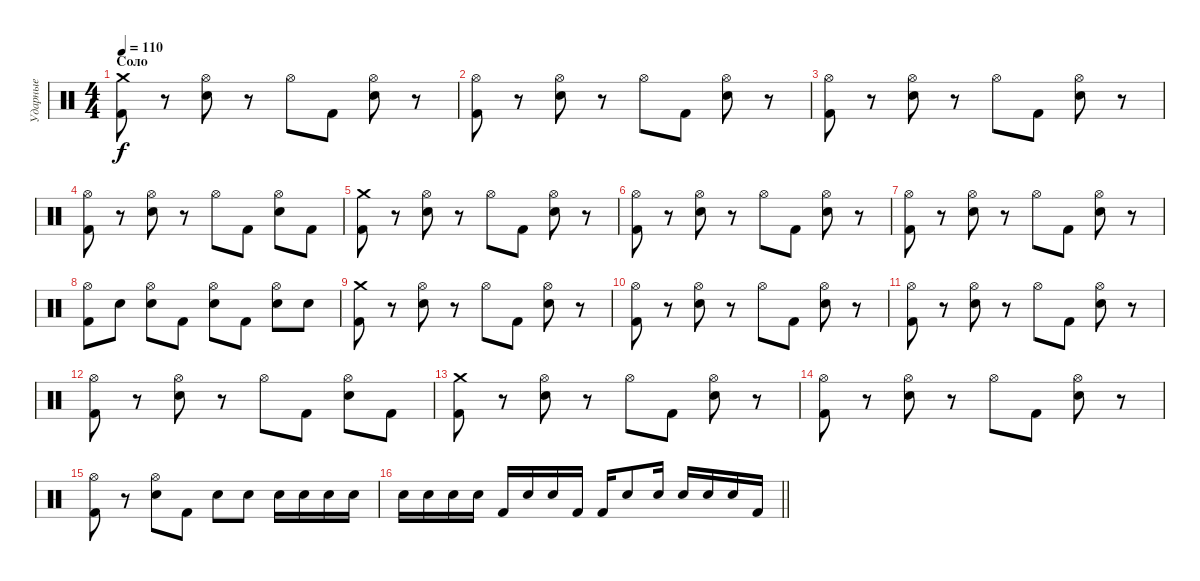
\track ("Ударные" "Ударные") {instrument percussion}
\staff {score}
\articulation defaults
\ts (4 4)
\section ("" "Соло")
\tempo 110
\clef neutral
\ks c
("Crash medium (hit)" "Kick (hit) 2").8{dy f} r.8 ("Hi-Hat (open)" "Snare (hit) 2").8 r.8 "Hi-Hat (open)".8 "Kick (hit) 2".8 ("Hi-Hat (open)" "Snare (hit) 2").8 r.8 |
("Hi-Hat (open)" "Kick (hit) 2").8 r.8 ("Hi-Hat (open)" "Snare (hit) 2").8 r.8 "Hi-Hat (open)".8 "Kick (hit) 2".8 ("Hi-Hat (open)" "Snare (hit) 2").8 r.8 |
("Hi-Hat (open)" "Kick (hit) 2").8 r.8 ("Hi-Hat (open)" "Snare (hit) 2").8 r.8 "Hi-Hat (open)".8 "Kick (hit) 2".8 ("Hi-Hat (open)" "Snare (hit) 2").8 r.8 |
("Hi-Hat (open)" "Kick (hit) 2").8 r.8 ("Hi-Hat (open)" "Snare (hit) 2").8 r.8 "Hi-Hat (open)".8 "Kick (hit) 2".8 ("Hi-Hat (open)" "Snare (hit) 2").8 "Kick (hit) 2".8 |
("Crash medium (hit)" "Kick (hit) 2").8 r.8 ("Hi-Hat (open)" "Snare (hit) 2").8 r.8 "Hi-Hat (open)".8 "Kick (hit) 2".8 ("Hi-Hat (open)" "Snare (hit) 2").8 r.8 |
("Hi-Hat (open)" "Kick (hit) 2").8 r.8 ("Hi-Hat (open)" "Snare (hit) 2").8 r.8 "Hi-Hat (open)".8 "Kick (hit) 2".8 ("Hi-Hat (open)" "Snare (hit) 2").8 r.8 |
("Hi-Hat (open)" "Kick (hit) 2").8 r.8 ("Hi-Hat (open)" "Snare (hit) 2").8 r.8 "Hi-Hat (open)".8 "Kick (hit) 2".8 ("Hi-Hat (open)" "Snare (hit) 2").8 r.8 |
("Hi-Hat (open)" "Kick (hit) 2").8 "Snare (hit) 2".8 ("Hi-Hat (open)" "Snare (hit) 2").8 "Kick (hit) 2".8 ("Hi-Hat (open)" "Snare (hit) 2").8 "Kick (hit) 2".8 ("Hi-Hat (open)" "Snare (hit) 2").8 "Snare (hit) 2".8 |
("Crash medium (hit)" "Kick (hit) 2").8 r.8 ("Hi-Hat (open)" "Snare (hit) 2").8 r.8 "Hi-Hat (open)".8 "Kick (hit) 2".8 ("Hi-Hat (open)" "Snare (hit) 2").8 r.8 |
("Hi-Hat (open)" "Kick (hit) 2").8 r.8 ("Hi-Hat (open)" "Snare (hit) 2").8 r.8 "Hi-Hat (open)".8 "Kick (hit) 2".8 ("Hi-Hat (open)" "Snare (hit) 2").8 r.8 |
("Hi-Hat (open)" "Kick (hit) 2").8 r.8 ("Hi-Hat (open)" "Snare (hit) 2").8 r.8 "Hi-Hat (open)".8 "Kick (hit) 2".8 ("Hi-Hat (open)" "Snare (hit) 2").8 r.8 |
("Hi-Hat (open)" "Kick (hit) 2").8 r.8 ("Hi-Hat (open)" "Snare (hit) 2").8 r.8 "Hi-Hat (open)".8 "Kick (hit) 2".8 ("Hi-Hat (open)" "Snare (hit) 2").8 "Kick (hit) 2".8 |
("Crash medium (hit)" "Kick (hit) 2").8 r.8 ("Hi-Hat (open)" "Snare (hit) 2").8 r.8 "Hi-Hat (open)".8 "Kick (hit) 2".8 ("Hi-Hat (open)" "Snare (hit) 2").8 r.8 |
("Hi-Hat (open)" "Kick (hit) 2").8 r.8 ("Hi-Hat (open)" "Snare (hit) 2").8 r.8 "Hi-Hat (open)".8 "Kick (hit) 2".8 ("Hi-Hat (open)" "Snare (hit) 2").8 r.8 |
("Hi-Hat (open)" "Kick (hit) 2").8 r.8 ("Hi-Hat (open)" "Snare (hit) 2").8 "Kick (hit) 2".8 "Snare (hit) 2".8 "Snare (hit) 2".8 "Snare (hit) 2".16 "Snare (hit) 2".16 "Snare (hit) 2".16 "Snare (hit) 2".16 |
\barLineRight lightlight "Snare (hit) 2".16 "Snare (hit) 2".16 "Snare (hit) 2".16 "Snare (hit) 2".16 "Kick (hit) 2".16 "Snare (hit) 2".16 "Snare (hit) 2".16 "Kick (hit) 2".16 "Kick (hit) 2".16 "Snare (hit) 2".8 "Snare (hit) 2".16 "Snare (hit) 2".16 "Snare (hit) 2".16 "Snare (hit) 2".16 "Kick (hit) 2".16
